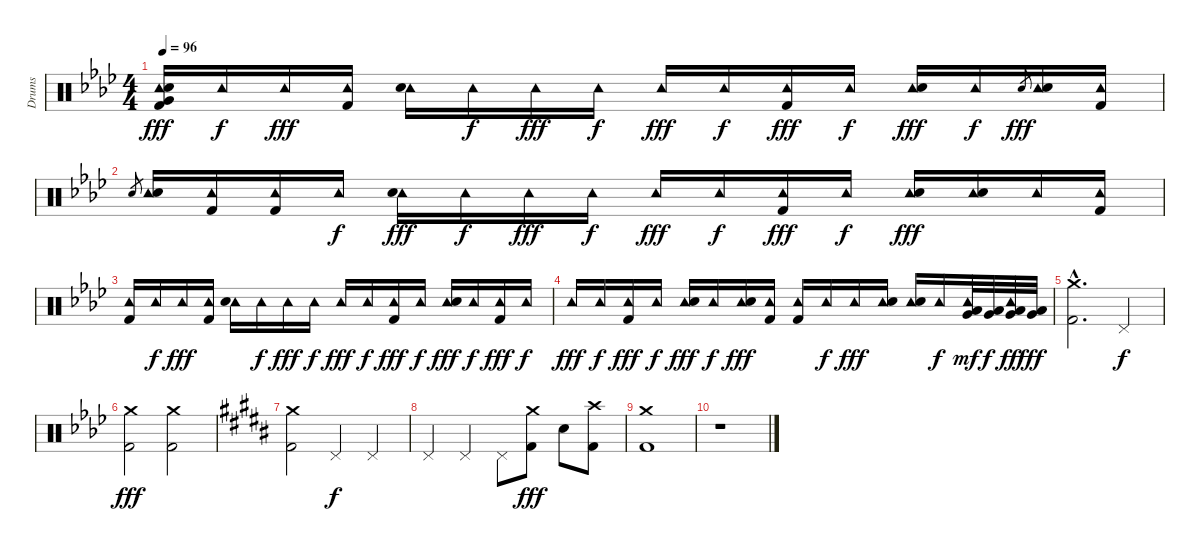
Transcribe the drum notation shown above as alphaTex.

\track ("Drums" "Drums") {instrument percussion}
\staff {score}
\articulation defaults
\ts (4 4)
\tempo 96
\clef neutral
\ks ab
("Tambourine (hit)" "Very Low Tom (hit)" "Snare (hit) 2" "Kick (hit) 2").16{dy fff} "Tambourine (hit)".16{dy f} "Tambourine (hit)".16{dy fff} ("Tambourine (hit)" "Kick (hit) 2").16 ("Tambourine (hit)" "Snare (hit) 2").16 "Tambourine (hit)".16{dy f} "Tambourine (hit)".16{dy fff} "Tambourine (hit)".16{dy f} "Tambourine (hit)".16{dy fff} "Tambourine (hit)".16{dy f} ("Tambourine (hit)" "Kick (hit) 2").16{dy fff} "Tambourine (hit)".16{dy f} ("Tambourine (hit)" "Snare (hit) 2").16{dy fff} "Tambourine (hit)".16{dy f} "Snare (hit) 2".8{gr dy fff} ("Tambourine (hit)" "Snare (hit) 2").16 ("Tambourine (hit)" "Kick (hit) 2").16 |
"Snare (hit) 2".8{gr} ("Tambourine (hit)" "Snare (hit) 2").16 ("Tambourine (hit)" "Kick (hit) 2").16 ("Tambourine (hit)" "Kick (hit) 2").16 "Tambourine (hit)".16{dy f} ("Tambourine (hit)" "Snare (hit) 2").16{dy fff} "Tambourine (hit)".16{dy f} "Tambourine (hit)".16{dy fff} "Tambourine (hit)".16{dy f} "Tambourine (hit)".16{dy fff} "Tambourine (hit)".16{dy f} ("Tambourine (hit)" "Kick (hit) 2").16{dy fff} "Tambourine (hit)".16{dy f} ("Tambourine (hit)" "Snare (hit) 2").16{dy fff} ("Tambourine (hit)" "Snare (hit) 2").16 "Tambourine (hit)".16 ("Tambourine (hit)" "Kick (hit) 2").16 |
("Tambourine (hit)" "Kick (hit) 2").16 "Tambourine (hit)".16{dy f} "Tambourine (hit)".16{dy fff} ("Tambourine (hit)" "Kick (hit) 2").16 ("Tambourine (hit)" "Snare (hit) 2").16 "Tambourine (hit)".16{dy f} "Tambourine (hit)".16{dy fff} "Tambourine (hit)".16{dy f} "Tambourine (hit)".16{dy fff} "Tambourine (hit)".16{dy f} ("Tambourine (hit)" "Kick (hit) 2").16{dy fff} "Tambourine (hit)".16{dy f} ("Tambourine (hit)" "Snare (hit) 2").16{dy fff} "Tambourine (hit)".16{dy f} ("Tambourine (hit)" "Kick (hit) 2").16{dy fff} "Tambourine (hit)".16{dy f} |
"Tambourine (hit)".16{dy fff} "Tambourine (hit)".16{dy f} ("Tambourine (hit)" "Kick (hit) 2").16{dy fff} "Tambourine (hit)".16{dy f} ("Tambourine (hit)" "Snare (hit) 2").16{dy fff} "Tambourine (hit)".16{dy f} ("Tambourine (hit)" "Snare (hit) 2").16{dy fff} ("Tambourine (hit)" "Kick (hit) 2").16 ("Tambourine (hit)" "Kick (hit) 2").16 "Tambourine (hit)".16{dy f} "Tambourine (hit)".16{dy fff} ("Tambourine (hit)" "Snare (hit) 2").16 ("Tambourine (hit)" "Snare (hit) 2").16 "Tambourine (hit)".16{dy f} ("Tambourine (hit)" "Very Low Tom (hit)" "Low Floor Tom (hit)").32{dy mf} ("Very Low Tom (hit)" "Low Floor Tom (hit)").32{dy f} ("Tambourine (hit)" "Very Low Tom (hit)" "Low Floor Tom (hit)").32{dy ff} ("Very Low Tom (hit)" "Low Floor Tom (hit)").32{dy fff} |
("Crash medium (hit)"{hac} "Kick (hit) 2"{hac}).2{d} "Pedal Hi-Hat (hit)".4{dy f} |
("Crash medium (hit)" "Kick (hit) 2").2{dy fff} ("Crash medium (hit)" "Kick (hit) 2").2 |
\ks b
("Crash medium (hit)" "Kick (hit) 2").2 "Pedal Hi-Hat (hit)".4{dy f} "Pedal Hi-Hat (hit)".4 |
"Pedal Hi-Hat (hit)".4 "Pedal Hi-Hat (hit)".4 "Pedal Hi-Hat (hit)".8 ("Crash medium (hit)" "Kick (hit) 2").8{dy fff} "Snare (hit) 2".8 ("Crash high (hit)" "Kick (hit) 2").8 |
("Crash medium (hit)" "Kick (hit) 2").1 |
r.1
